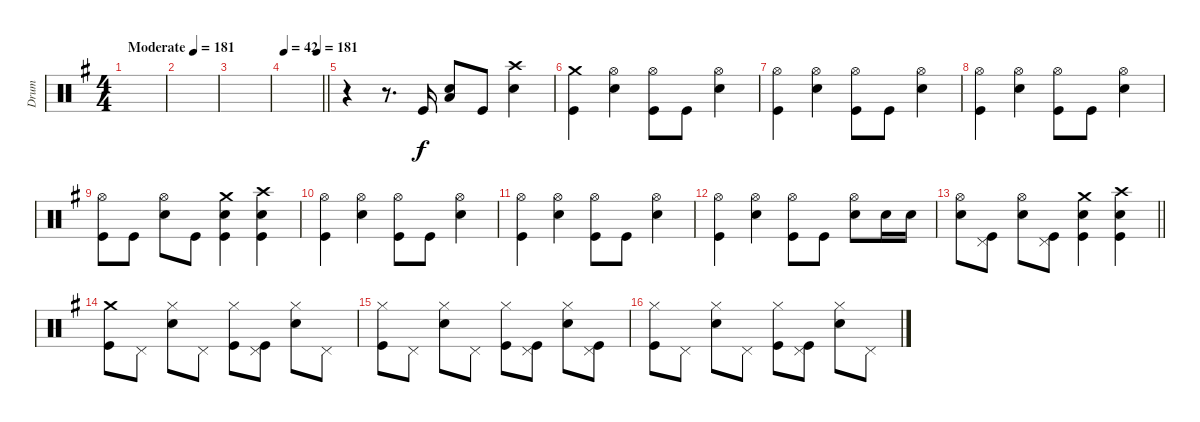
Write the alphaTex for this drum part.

\track ("Drum" "Drum") {instrument percussion}
\staff {score}
\articulation defaults
\ts (4 4)
\tempo (181 "Moderate")
\tempo 88
\tempo (181 "Moderate")
\clef neutral
\ks eminor
|
|
|
\tempo 42
\tempo (181 0.875)
\barLineRight lightlight
|
r.4 r.8{d} "Kick (hit)".16 ("Snare (hit) 2" "Low Tom (hit)").8 "Kick (hit)".8 ("Crash high (hit)" "Snare (hit) 2").4 |
("Crash medium (hit)" "Kick (hit)").4 ("Hi-Hat (open)" "Snare (hit) 2").4 ("Hi-Hat (open)" "Kick (hit)").8 "Kick (hit)".8 ("Hi-Hat (open)" "Snare (hit) 2").4 |
("Hi-Hat (open)" "Kick (hit)").4 ("Hi-Hat (open)" "Snare (hit) 2").4 ("Hi-Hat (open)" "Kick (hit)").8 "Kick (hit)".8 ("Hi-Hat (open)" "Snare (hit) 2").4 |
("Hi-Hat (open)" "Kick (hit)").4 ("Hi-Hat (open)" "Snare (hit) 2").4 ("Hi-Hat (open)" "Kick (hit)").8 "Kick (hit)".8 ("Hi-Hat (open)" "Snare (hit) 2").4 |
("Hi-Hat (open)" "Kick (hit)").8 "Kick (hit)".8 ("Hi-Hat (open)" "Snare (hit) 2").8 "Kick (hit)".8 ("Crash medium (hit)" "Snare (hit) 2" "Kick (hit)").4 ("Crash high (hit)" "Snare (hit) 2" "Kick (hit)").4 |
("Hi-Hat (open)" "Kick (hit)").4 ("Hi-Hat (open)" "Snare (hit) 2").4 ("Hi-Hat (open)" "Kick (hit)").8 "Kick (hit)".8 ("Hi-Hat (open)" "Snare (hit) 2").4 |
("Hi-Hat (open)" "Kick (hit)").4 ("Hi-Hat (open)" "Snare (hit) 2").4 ("Hi-Hat (open)" "Kick (hit)").8 "Kick (hit)".8 ("Hi-Hat (open)" "Snare (hit) 2").4 |
("Hi-Hat (open)" "Kick (hit)").4 ("Hi-Hat (open)" "Snare (hit) 2").4 ("Hi-Hat (open)" "Kick (hit)").8 "Kick (hit)".8 ("Hi-Hat (open)" "Snare (hit) 2").8 "Snare (hit) 2".16 "Snare (hit) 2".16 |
\barLineRight lightlight
("Hi-Hat (open)" "Snare (hit) 2").8 ("Pedal Hi-Hat (hit)" "Kick (hit)").8 ("Hi-Hat (open)" "Snare (hit) 2").8 ("Pedal Hi-Hat (hit)" "Kick (hit)").8 ("Crash medium (hit)" "Snare (hit) 2" "Kick (hit)").4 ("Crash high (hit)" "Snare (hit) 2" "Kick (hit)").4 |
("Crash medium (hit)" "Kick (hit)").8 "Pedal Hi-Hat (hit)".8 ("Hi-Hat (closed)" "Snare (hit) 2").8 "Pedal Hi-Hat (hit)".8 ("Hi-Hat (closed)" "Kick (hit)").8 ("Pedal Hi-Hat (hit)" "Kick (hit)").8 ("Hi-Hat (closed)" "Snare (hit) 2").8 "Pedal Hi-Hat (hit)".8 |
("Hi-Hat (closed)" "Kick (hit)").8 "Pedal Hi-Hat (hit)".8 ("Hi-Hat (closed)" "Snare (hit) 2").8 "Pedal Hi-Hat (hit)".8 ("Hi-Hat (closed)" "Kick (hit)").8 ("Pedal Hi-Hat (hit)" "Kick (hit)").8 ("Hi-Hat (closed)" "Snare (hit) 2").8 ("Pedal Hi-Hat (hit)" "Kick (hit)").8 |
("Hi-Hat (closed)" "Kick (hit)").8 "Pedal Hi-Hat (hit)".8 ("Hi-Hat (closed)" "Snare (hit) 2").8 "Pedal Hi-Hat (hit)".8 ("Hi-Hat (closed)" "Kick (hit)").8 ("Pedal Hi-Hat (hit)" "Kick (hit)").8 ("Hi-Hat (closed)" "Snare (hit) 2").8 "Pedal Hi-Hat (hit)".8
